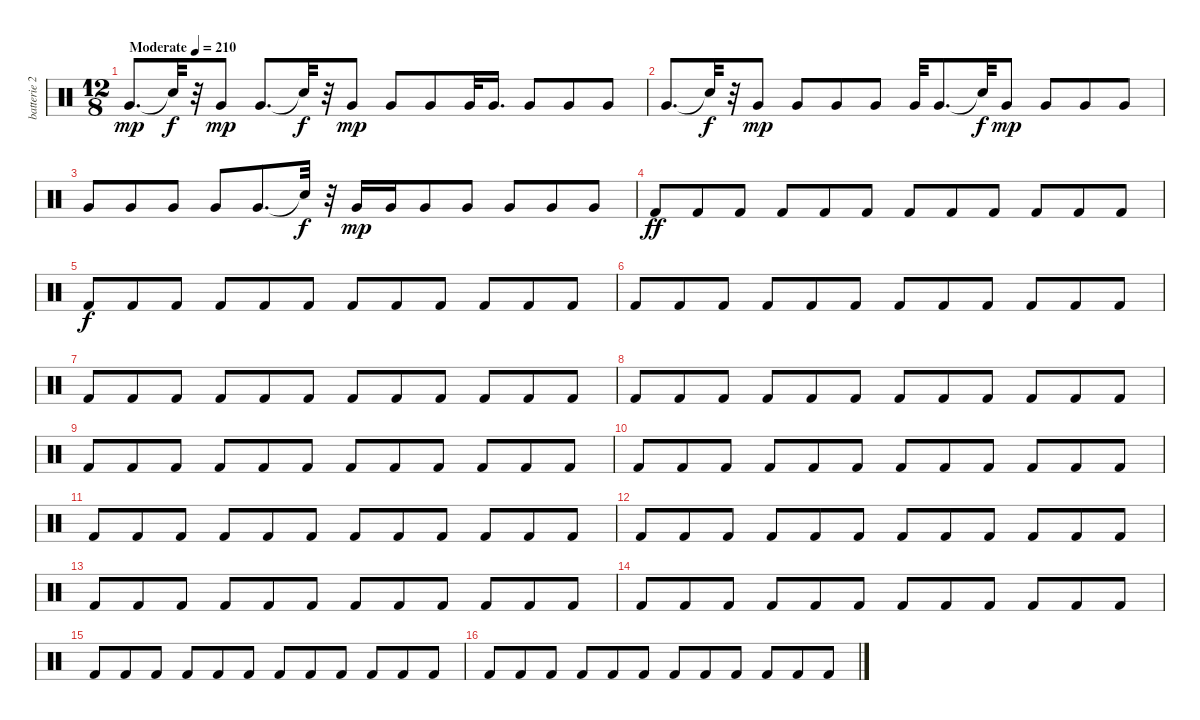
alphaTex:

\track ("batterie 2" "batterie 2") {instrument percussion}
\staff {score}
\articulation defaults
\ts (12 8)
\tempo (210 "Moderate")
\clef neutral
\ks c "Very Low Tom (hit)".8{d dy mp} "Snare (hit)"{t}.32{dy f}
r.32 "Very Low Tom (hit)".8{dy mp} "Very Low Tom (hit)".8{d} "Snare (hit)"{t}.32{dy f} r.32 "Very Low Tom (hit)".8{dy mp} "Very Low Tom (hit)".8 "Very Low Tom (hit)".8 "Very Low Tom (hit)".32 "Very Low Tom (hit)".16{d} "Very Low Tom (hit)".8 "Very Low Tom (hit)".8 "Very Low Tom (hit)".8 |
"Very Low Tom (hit)".8{d} "Snare (hit)"{t}.32{dy f} r.32 "Very Low Tom (hit)".8{dy mp} "Very Low Tom (hit)".8 "Very Low Tom (hit)".8 "Very Low Tom (hit)".8 "Very Low Tom (hit)".32 "Very Low Tom (hit)".8{d} "Snare (hit)"{t}.32{dy f} "Very Low Tom (hit)".8{dy mp} "Very Low Tom (hit)".8 "Very Low Tom (hit)".8 "Very Low Tom (hit)".8 |
"Very Low Tom (hit)".8 "Very Low Tom (hit)".8 "Very Low Tom (hit)".8 "Very Low Tom (hit)".8 "Very Low Tom (hit)".8{d} "Snare (hit)"{t}.32{dy f} r.32 "Very Low Tom (hit)".16{dy mp} "Very Low Tom (hit)".16 "Very Low Tom (hit)".8 "Very Low Tom (hit)".8 "Very Low Tom (hit)".8 "Very Low Tom (hit)".8 "Very Low Tom (hit)".8 |
"Kick (hit) 2".8{dy ff} "Kick (hit) 2".8 "Kick (hit) 2".8 "Kick (hit) 2".8 "Kick (hit) 2".8 "Kick (hit) 2".8 "Kick (hit) 2".8 "Kick (hit) 2".8 "Kick (hit) 2".8 "Kick (hit) 2".8 "Kick (hit) 2".8 "Kick (hit) 2".8 |
"Kick (hit) 2".8{dy f} "Kick (hit) 2".8 "Kick (hit) 2".8 "Kick (hit) 2".8 "Kick (hit) 2".8 "Kick (hit) 2".8 "Kick (hit) 2".8 "Kick (hit) 2".8 "Kick (hit) 2".8 "Kick (hit) 2".8 "Kick (hit) 2".8 "Kick (hit) 2".8 |
"Kick (hit) 2".8 "Kick (hit) 2".8 "Kick (hit) 2".8 "Kick (hit) 2".8 "Kick (hit) 2".8 "Kick (hit) 2".8 "Kick (hit) 2".8 "Kick (hit) 2".8 "Kick (hit) 2".8 "Kick (hit) 2".8 "Kick (hit) 2".8 "Kick (hit) 2".8 |
"Kick (hit) 2".8 "Kick (hit) 2".8 "Kick (hit) 2".8 "Kick (hit) 2".8 "Kick (hit) 2".8 "Kick (hit) 2".8 "Kick (hit) 2".8 "Kick (hit) 2".8 "Kick (hit) 2".8 "Kick (hit) 2".8 "Kick (hit) 2".8 "Kick (hit) 2".8 |
"Kick (hit) 2".8 "Kick (hit) 2".8 "Kick (hit) 2".8 "Kick (hit) 2".8 "Kick (hit) 2".8 "Kick (hit) 2".8 "Kick (hit) 2".8 "Kick (hit) 2".8 "Kick (hit) 2".8 "Kick (hit) 2".8 "Kick (hit) 2".8 "Kick (hit) 2".8 |
"Kick (hit) 2".8 "Kick (hit) 2".8 "Kick (hit) 2".8 "Kick (hit) 2".8 "Kick (hit) 2".8 "Kick (hit) 2".8 "Kick (hit) 2".8 "Kick (hit) 2".8 "Kick (hit) 2".8 "Kick (hit) 2".8 "Kick (hit) 2".8 "Kick (hit) 2".8 |
"Kick (hit) 2".8 "Kick (hit) 2".8 "Kick (hit) 2".8 "Kick (hit) 2".8 "Kick (hit) 2".8 "Kick (hit) 2".8 "Kick (hit) 2".8 "Kick (hit) 2".8 "Kick (hit) 2".8 "Kick (hit) 2".8 "Kick (hit) 2".8 "Kick (hit) 2".8 |
"Kick (hit) 2".8 "Kick (hit) 2".8 "Kick (hit) 2".8 "Kick (hit) 2".8 "Kick (hit) 2".8 "Kick (hit) 2".8 "Kick (hit) 2".8 "Kick (hit) 2".8 "Kick (hit) 2".8 "Kick (hit) 2".8 "Kick (hit) 2".8 "Kick (hit) 2".8 |
"Kick (hit) 2".8 "Kick (hit) 2".8 "Kick (hit) 2".8 "Kick (hit) 2".8 "Kick (hit) 2".8 "Kick (hit) 2".8 "Kick (hit) 2".8 "Kick (hit) 2".8 "Kick (hit) 2".8 "Kick (hit) 2".8 "Kick (hit) 2".8 "Kick (hit) 2".8 |
"Kick (hit) 2".8 "Kick (hit) 2".8 "Kick (hit) 2".8 "Kick (hit) 2".8 "Kick (hit) 2".8 "Kick (hit) 2".8 "Kick (hit) 2".8 "Kick (hit) 2".8 "Kick (hit) 2".8 "Kick (hit) 2".8 "Kick (hit) 2".8 "Kick (hit) 2".8 |
"Kick (hit) 2".8 "Kick (hit) 2".8 "Kick (hit) 2".8 "Kick (hit) 2".8 "Kick (hit) 2".8 "Kick (hit) 2".8 "Kick (hit) 2".8 "Kick (hit) 2".8 "Kick (hit) 2".8 "Kick (hit) 2".8 "Kick (hit) 2".8 "Kick (hit) 2".8 |
"Kick (hit) 2".8 "Kick (hit) 2".8 "Kick (hit) 2".8 "Kick (hit) 2".8 "Kick (hit) 2".8 "Kick (hit) 2".8 "Kick (hit) 2".8 "Kick (hit) 2".8 "Kick (hit) 2".8 "Kick (hit) 2".8 "Kick (hit) 2".8 "Kick (hit) 2".8 |
"Kick (hit) 2".8 "Kick (hit) 2".8 "Kick (hit) 2".8 "Kick (hit) 2".8 "Kick (hit) 2".8 "Kick (hit) 2".8 "Kick (hit) 2".8 "Kick (hit) 2".8 "Kick (hit) 2".8 "Kick (hit) 2".8 "Kick (hit) 2".8 "Kick (hit) 2".8
